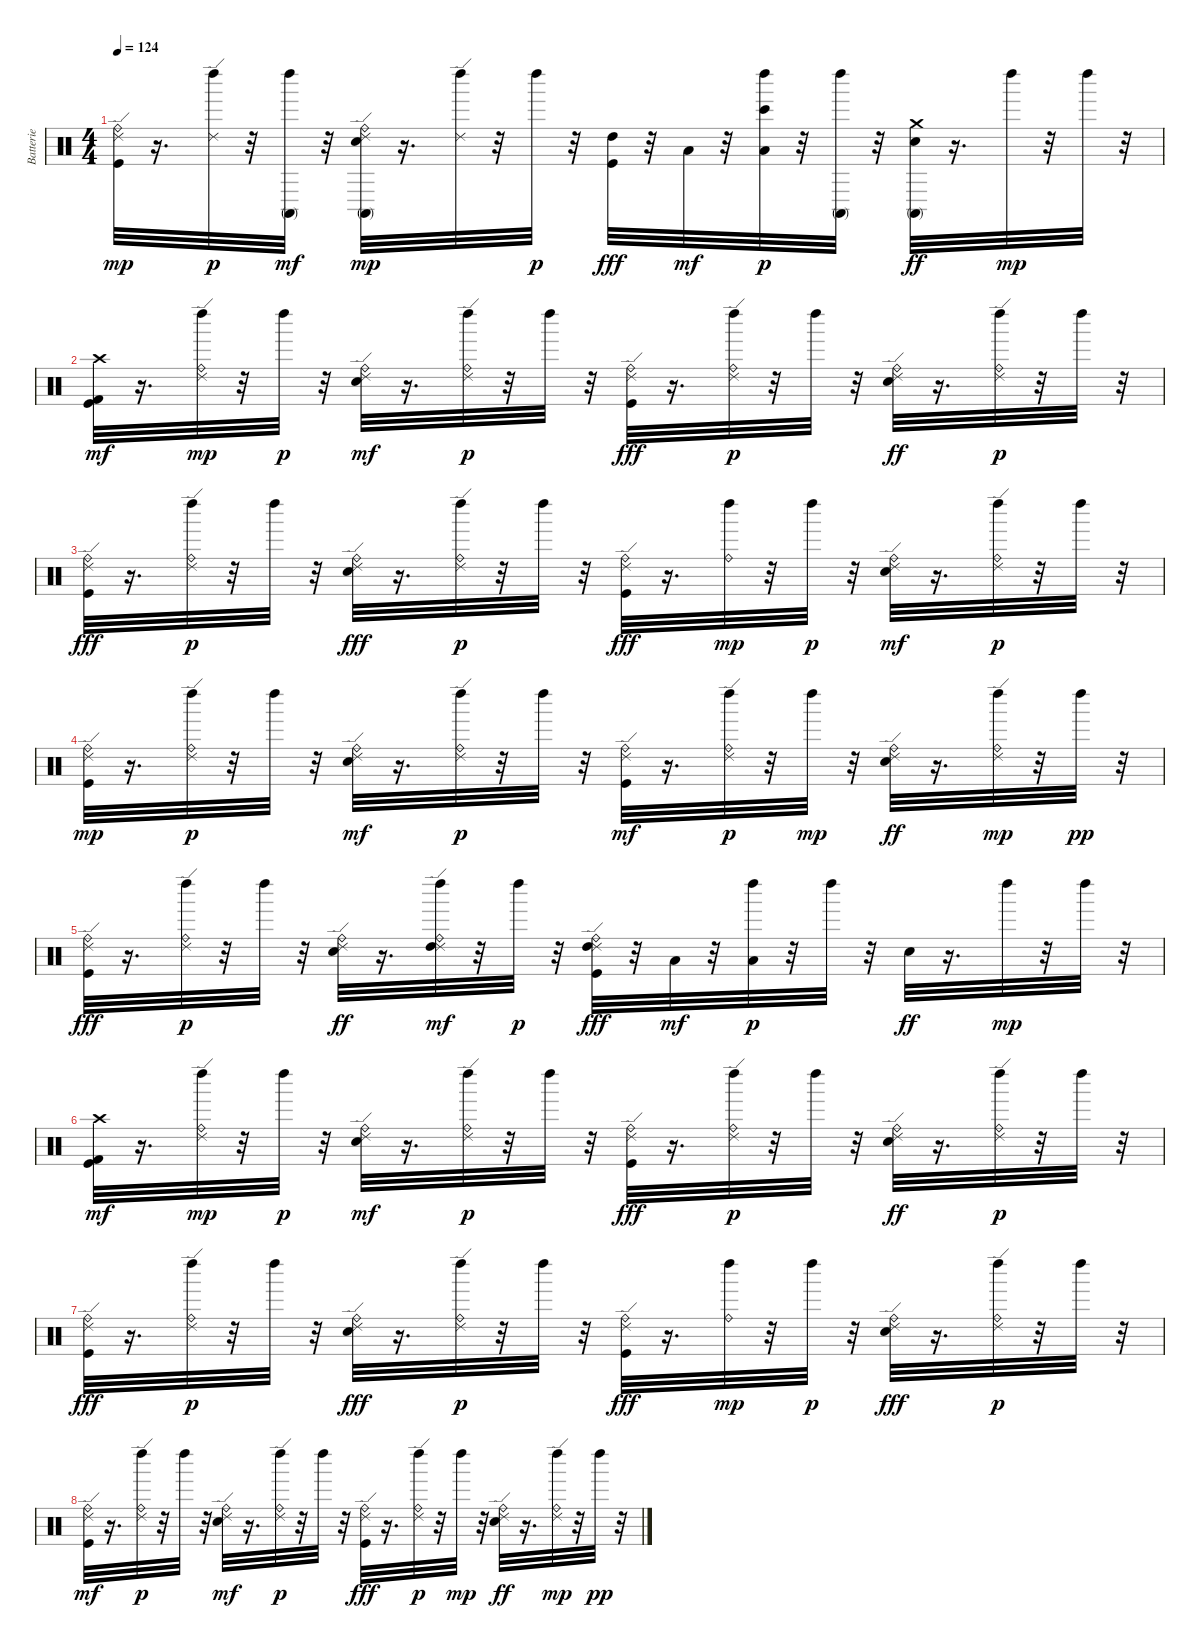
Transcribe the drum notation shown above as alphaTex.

\track ("Batterie" "Batterie") {instrument percussion}
\staff {score}
\articulation defaults
\ts (4 4)
\tempo 124
\clef neutral
\ks c
("Ride (edge) 2" "Kick (hit)" "Ride (bell)").32{dy mp} r.16{d} ("Ride (edge) 2" "Left Maraca (hit)").32{dy p} r.32 ("Left Maraca (hit)" "Conga high (mute)").32{dy mf} r.32 ("Ride (edge) 2" "Electric Snare (hit)" "Conga high (mute)" "Ride (bell)").32{dy mp} r.16{d} ("Ride (edge) 2" "Left Maraca (hit)").32 r.32 "Left Maraca (hit)".32{dy p} r.32 ("High Tom (hit)" "Kick (hit)").32{dy fff} r.32 "Low Tom (hit)".32{dy mf} r.32 ("Low Tom (hit)" "Left Maraca (hit)" "Bongo High (hit)").32{dy p} r.32 ("Conga high (mute)" "Left Maraca (hit)").32 r.32 ("Crash medium (hit)" "Electric Snare (hit)" "Conga high (mute)").32{dy ff} r.16{d} "Left Maraca (hit)".32{dy mp} r.32 "Left Maraca (hit)".32 r.32 |
("Kick (hit) 2" "Kick (hit)" "Crash high (hit)").32{dy mf} r.16{d} ("Left Maraca (hit)" "Ride (bell)" "Ride (edge) 2").32{dy mp} r.32 "Left Maraca (hit)".32{dy p} r.32 ("Ride (bell)" "Electric Snare (hit)" "Ride (edge) 2").32{dy mf} r.16{d} ("Left Maraca (hit)" "Ride (bell)" "Ride (edge) 2").32{dy p} r.32 "Left Maraca (hit)".32 r.32 ("Ride (bell)" "Ride (edge) 2" "Kick (hit)").32{dy fff} r.16{d} ("Left Maraca (hit)" "Ride (bell)" "Ride (edge) 2").32{dy p} r.32 "Left Maraca (hit)".32 r.32 ("Ride (edge) 2" "Ride (bell)" "Electric Snare (hit)").32{dy ff} r.16{d} ("Ride (edge) 2" "Left Maraca (hit)" "Ride (bell)").32{dy p} r.32 "Left Maraca (hit)".32 r.32 |
("Ride (bell)" "Ride (edge) 2" "Kick (hit)").32{dy fff} r.16{d} ("Ride (bell)" "Ride (edge) 2" "Left Maraca (hit)").32{dy p} r.32 "Left Maraca (hit)".32 r.32 ("Ride (bell)" "Ride (edge) 2" "Electric Snare (hit)").32{dy fff} r.16{d} ("Ride (bell)" "Ride (edge) 2" "Left Maraca (hit)").32{dy p} r.32 "Left Maraca (hit)".32 r.32 ("Ride (bell)" "Ride (edge) 2" "Kick (hit)").32{dy fff} r.16{d} ("Ride (bell)" "Left Maraca (hit)").32{dy mp} r.32 "Left Maraca (hit)".32{dy p} r.32 ("Ride (bell)" "Electric Snare (hit)" "Ride (edge) 2").32{dy mf} r.16{d} ("Ride (edge) 2" "Ride (bell)" "Left Maraca (hit)").32{dy p} r.32 "Left Maraca (hit)".32 r.32 |
("Kick (hit)" "Ride (edge) 2" "Ride (bell)").32{dy mp} r.16{d} ("Ride (edge) 2" "Ride (bell)" "Left Maraca (hit)").32{dy p} r.32 "Left Maraca (hit)".32 r.32 ("Ride (bell)" "Electric Snare (hit)" "Ride (edge) 2").32{dy mf} r.16{d} ("Ride (edge) 2" "Ride (bell)" "Left Maraca (hit)").32{dy p} r.32 "Left Maraca (hit)".32 r.32 ("Kick (hit)" "Ride (bell)" "Ride (edge) 2").32{dy mf} r.16{d} ("Ride (edge) 2" "Ride (bell)" "Left Maraca (hit)").32{dy p} r.32 "Left Maraca (hit)".32{dy mp} r.32 ("Ride (bell)" "Ride (edge) 2" "Electric Snare (hit)").32{dy ff} r.16{d} ("Ride (edge) 2" "Ride (bell)" "Left Maraca (hit)").32{dy mp} r.32 "Left Maraca (hit)".32{dy pp} r.32 |
("Ride (edge) 2" "Ride (bell)" "Kick (hit)").32{dy fff} r.16{d} ("Ride (edge) 2" "Ride (bell)" "Left Maraca (hit)").32{dy p} r.32 "Left Maraca (hit)".32 r.32 ("Ride (edge) 2" "Ride (bell)" "Electric Snare (hit)").32{dy ff} r.16{d} ("Ride (edge) 2" "Left Maraca (hit)" "Ride (bell)" "High Tom (hit)").32{dy mf} r.32 "Left Maraca (hit)".32{dy p} r.32 ("Ride (bell)" "Ride (edge) 2" "High Tom (hit)" "Kick (hit)").32{dy fff} r.32 "Low Tom (hit)".32{dy mf} r.32 ("Low Floor Tom (hit)" "Left Maraca (hit)").32{dy p} r.32 "Left Maraca (hit)".32 r.32 "Electric Snare (hit)".32{dy ff} r.16{d} "Left Maraca (hit)".32{dy mp} r.32 "Left Maraca (hit)".32 r.32 |
("Kick (hit) 2" "Kick (hit)" "Crash high (hit)").32{dy mf} r.16{d} ("Left Maraca (hit)" "Ride (bell)" "Ride (edge) 2").32{dy mp} r.32 "Left Maraca (hit)".32{dy p} r.32 ("Ride (bell)" "Electric Snare (hit)" "Ride (edge) 2").32{dy mf} r.16{d} ("Left Maraca (hit)" "Ride (bell)" "Ride (edge) 2").32{dy p} r.32 "Left Maraca (hit)".32 r.32 ("Ride (bell)" "Ride (edge) 2" "Kick (hit)").32{dy fff} r.16{d} ("Left Maraca (hit)" "Ride (bell)" "Ride (edge) 2").32{dy p} r.32 "Left Maraca (hit)".32 r.32 ("Ride (bell)" "Ride (edge) 2" "Electric Snare (hit)").32{dy ff} r.16{d} ("Ride (edge) 2" "Ride (bell)" "Left Maraca (hit)").32{dy p} r.32 "Left Maraca (hit)".32 r.32 |
("Ride (bell)" "Ride (edge) 2" "Kick (hit)").32{dy fff} r.16{d} ("Ride (bell)" "Ride (edge) 2" "Left Maraca (hit)").32{dy p} r.32 "Left Maraca (hit)".32 r.32 ("Ride (edge) 2" "Ride (bell)" "Electric Snare (hit)").32{dy fff} r.16{d} ("Ride (bell)" "Ride (edge) 2" "Left Maraca (hit)").32{dy p} r.32 "Left Maraca (hit)".32 r.32 ("Ride (edge) 2" "Ride (bell)" "Kick (hit)").32{dy fff} r.16{d} ("Ride (bell)" "Left Maraca (hit)").32{dy mp} r.32 "Left Maraca (hit)".32{dy p} r.32 ("Ride (bell)" "Ride (edge) 2" "Electric Snare (hit)").32{dy fff} r.16{d} ("Ride (edge) 2" "Ride (bell)" "Left Maraca (hit)").32{dy p} r.32 "Left Maraca (hit)".32 r.32 |
("Ride (bell)" "Kick (hit)" "Ride (edge) 2").32{dy mf} r.16{d} ("Ride (edge) 2" "Ride (bell)" "Left Maraca (hit)").32{dy p} r.32 "Left Maraca (hit)".32 r.32 ("Ride (bell)" "Electric Snare (hit)" "Ride (edge) 2").32{dy mf} r.16{d} ("Ride (edge) 2" "Ride (bell)" "Left Maraca (hit)").32{dy p} r.32 "Left Maraca (hit)".32 r.32 ("Ride (bell)" "Ride (edge) 2" "Kick (hit)").32{dy fff} r.16{d} ("Ride (bell)" "Ride (edge) 2" "Left Maraca (hit)").32{dy p} r.32 "Left Maraca (hit)".32{dy mp} r.32 ("Ride (bell)" "Ride (edge) 2" "Electric Snare (hit)").32{dy ff} r.16{d} ("Ride (edge) 2" "Ride (bell)" "Left Maraca (hit)").32{dy mp} r.32 "Left Maraca (hit)".32{dy pp} r.32
